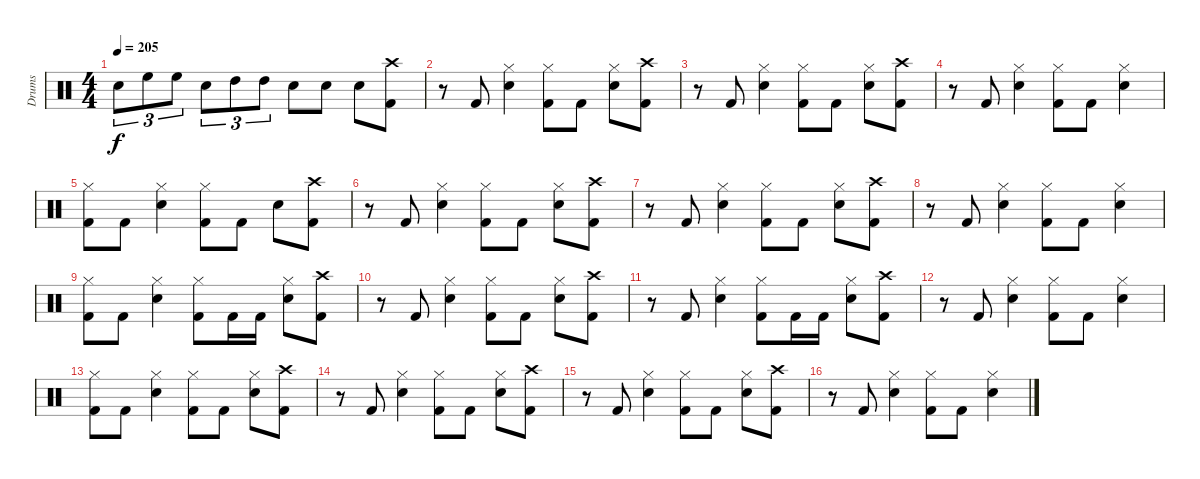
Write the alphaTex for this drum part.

\track ("Drums" "Drums") {instrument percussion}
\staff {score}
\articulation defaults
\ts (4 4)
\tempo 205
\clef neutral
\ks c "Snare (hit) 2".8{tu (3 2) dy f} "High Floor Tom (hit)".8{tu (3 2)} "High Floor Tom (hit)".8{tu (3 2)} "Snare (hit) 2".8{tu (3 2)} "High Tom (hit)".8{tu (3 2)} "High Tom (hit)".8{tu (3 2)} "Snare (hit) 2".8 "Snare (hit) 2".8 "Snare (hit) 2".8
("Kick (hit) 2" "Crash high (hit)").8 |
r.8 "Kick (hit) 2".8 ("Snare (hit) 2" "Hi-Hat (closed)").4 ("Hi-Hat (closed)" "Kick (hit) 2").8 "Kick (hit) 2".8 ("Snare (hit) 2" "Hi-Hat (closed)").8 ("Kick (hit) 2" "Crash high (hit)").8 |
r.8 "Kick (hit) 2".8 ("Snare (hit) 2" "Hi-Hat (closed)").4 ("Hi-Hat (closed)" "Kick (hit) 2").8 "Kick (hit) 2".8 ("Snare (hit) 2" "Hi-Hat (closed)").8 ("Kick (hit) 2" "Crash high (hit)").8 |
r.8 "Kick (hit) 2".8 ("Hi-Hat (closed)" "Snare (hit) 2").4 ("Kick (hit) 2" "Hi-Hat (closed)").8 "Kick (hit) 2".8 ("Hi-Hat (closed)" "Snare (hit) 2").4 |
("Hi-Hat (closed)" "Kick (hit) 2").8 "Kick (hit) 2".8 ("Hi-Hat (closed)" "Snare (hit) 2").4 ("Hi-Hat (closed)" "Kick (hit) 2").8 "Kick (hit) 2".8 "Snare (hit) 2".8 ("Kick (hit) 2" "Crash high (hit)").8 |
r.8 "Kick (hit) 2".8 ("Snare (hit) 2" "Hi-Hat (closed)").4 ("Hi-Hat (closed)" "Kick (hit) 2").8 "Kick (hit) 2".8 ("Hi-Hat (closed)" "Snare (hit) 2").8 ("Kick (hit) 2" "Crash high (hit)").8 |
r.8 "Kick (hit) 2".8 ("Snare (hit) 2" "Hi-Hat (closed)").4 ("Hi-Hat (closed)" "Kick (hit) 2").8 "Kick (hit) 2".8 ("Hi-Hat (closed)" "Snare (hit) 2").8 ("Kick (hit) 2" "Crash high (hit)").8 |
r.8 "Kick (hit) 2".8 ("Snare (hit) 2" "Hi-Hat (closed)").4 ("Hi-Hat (closed)" "Kick (hit) 2").8 "Kick (hit) 2".8 ("Hi-Hat (closed)" "Snare (hit) 2").4 |
("Kick (hit) 2" "Hi-Hat (closed)").8 "Kick (hit) 2".8 ("Hi-Hat (closed)" "Snare (hit) 2").4 ("Kick (hit) 2" "Hi-Hat (closed)").8 "Kick (hit) 2".16 "Kick (hit) 2".16 ("Snare (hit) 2" "Hi-Hat (closed)").8 ("Crash high (hit)" "Kick (hit) 2").8 |
r.8 "Kick (hit) 2".8 ("Snare (hit) 2" "Hi-Hat (closed)").4 ("Kick (hit) 2" "Hi-Hat (closed)").8 "Kick (hit) 2".8 ("Snare (hit) 2" "Hi-Hat (closed)").8 ("Kick (hit) 2" "Crash high (hit)").8 |
r.8 "Kick (hit) 2".8 ("Snare (hit) 2" "Hi-Hat (closed)").4 ("Hi-Hat (closed)" "Kick (hit) 2").8 "Kick (hit) 2".16 "Kick (hit) 2".16 ("Snare (hit) 2" "Hi-Hat (closed)").8 ("Kick (hit) 2" "Crash high (hit)").8 |
r.8 "Kick (hit) 2".8 ("Snare (hit) 2" "Hi-Hat (closed)").4 ("Kick (hit) 2" "Hi-Hat (closed)").8 "Kick (hit) 2".8 ("Hi-Hat (closed)" "Snare (hit) 2").4 |
("Hi-Hat (closed)" "Kick (hit) 2").8 "Kick (hit) 2".8 ("Hi-Hat (closed)" "Snare (hit) 2").4 ("Hi-Hat (closed)" "Kick (hit) 2").8 "Kick (hit) 2".8 ("Snare (hit) 2" "Hi-Hat (closed)").8 ("Kick (hit) 2" "Crash high (hit)").8 |
r.8 "Kick (hit) 2".8 ("Snare (hit) 2" "Hi-Hat (closed)").4 ("Hi-Hat (closed)" "Kick (hit) 2").8 "Kick (hit) 2".8 ("Snare (hit) 2" "Hi-Hat (closed)").8 ("Kick (hit) 2" "Crash high (hit)").8 |
r.8 "Kick (hit) 2".8 ("Snare (hit) 2" "Hi-Hat (closed)").4 ("Hi-Hat (closed)" "Kick (hit) 2").8 "Kick (hit) 2".8 ("Snare (hit) 2" "Hi-Hat (closed)").8 ("Kick (hit) 2" "Crash high (hit)").8 |
r.8 "Kick (hit) 2".8 ("Hi-Hat (closed)" "Snare (hit) 2").4 ("Kick (hit) 2" "Hi-Hat (closed)").8 "Kick (hit) 2".8 ("Hi-Hat (closed)" "Snare (hit) 2").4
